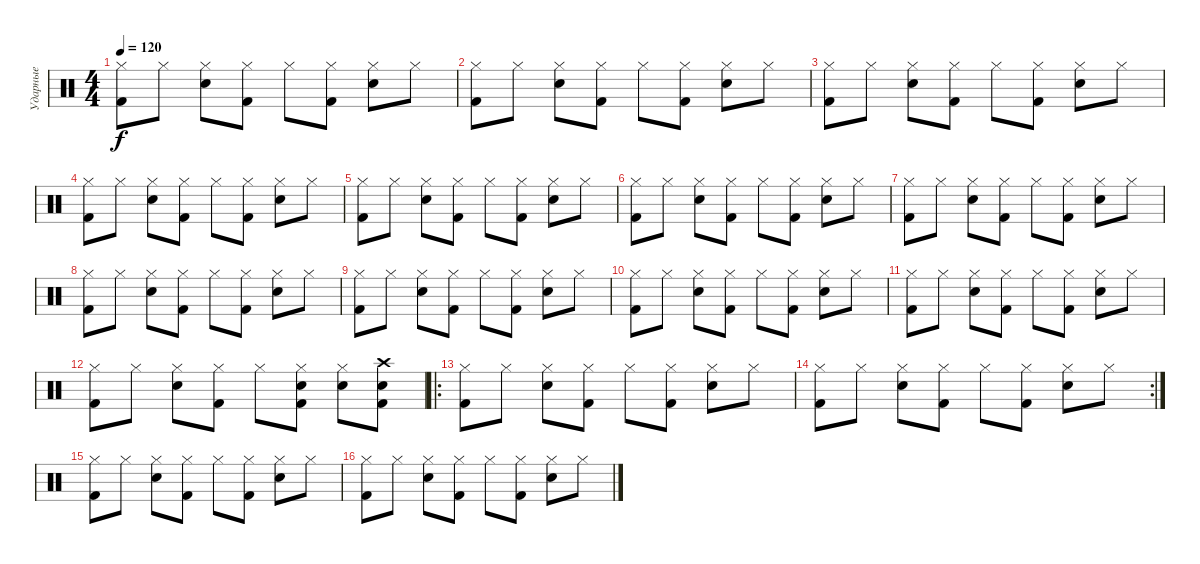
\track ("Ударные" "Ударные") {instrument percussion}
\staff {score}
\articulation defaults
\ts (4 4)
\tempo 120
\clef neutral
\ks c
("Hi-Hat (closed)" "Kick (hit) 2").8{dy f} "Hi-Hat (closed)".8 ("Hi-Hat (closed)" "Electric Snare (hit)").8 ("Hi-Hat (closed)" "Kick (hit) 2").8 "Hi-Hat (closed)".8 ("Hi-Hat (closed)" "Kick (hit) 2").8 ("Hi-Hat (closed)" "Electric Snare (hit)").8 "Hi-Hat (closed)".8 |
("Hi-Hat (closed)" "Kick (hit) 2").8 "Hi-Hat (closed)".8 ("Hi-Hat (closed)" "Electric Snare (hit)").8 ("Hi-Hat (closed)" "Kick (hit) 2").8 "Hi-Hat (closed)".8 ("Hi-Hat (closed)" "Kick (hit) 2").8 ("Hi-Hat (closed)" "Electric Snare (hit)").8 "Hi-Hat (closed)".8 |
("Hi-Hat (closed)" "Kick (hit) 2").8 "Hi-Hat (closed)".8 ("Hi-Hat (closed)" "Electric Snare (hit)").8 ("Hi-Hat (closed)" "Kick (hit) 2").8 "Hi-Hat (closed)".8 ("Hi-Hat (closed)" "Kick (hit) 2").8 ("Hi-Hat (closed)" "Electric Snare (hit)").8 "Hi-Hat (closed)".8 |
("Hi-Hat (closed)" "Kick (hit) 2").8 "Hi-Hat (closed)".8 ("Hi-Hat (closed)" "Electric Snare (hit)").8 ("Hi-Hat (closed)" "Kick (hit) 2").8 "Hi-Hat (closed)".8 ("Hi-Hat (closed)" "Kick (hit) 2").8 ("Hi-Hat (closed)" "Electric Snare (hit)").8 "Hi-Hat (closed)".8 |
("Hi-Hat (closed)" "Kick (hit) 2").8 "Hi-Hat (closed)".8 ("Hi-Hat (closed)" "Electric Snare (hit)").8 ("Hi-Hat (closed)" "Kick (hit) 2").8 "Hi-Hat (closed)".8 ("Hi-Hat (closed)" "Kick (hit) 2").8 ("Hi-Hat (closed)" "Electric Snare (hit)").8 "Hi-Hat (closed)".8 |
("Hi-Hat (closed)" "Kick (hit) 2").8 "Hi-Hat (closed)".8 ("Hi-Hat (closed)" "Electric Snare (hit)").8 ("Hi-Hat (closed)" "Kick (hit) 2").8 "Hi-Hat (closed)".8 ("Hi-Hat (closed)" "Kick (hit) 2").8 ("Hi-Hat (closed)" "Electric Snare (hit)").8 "Hi-Hat (closed)".8 |
("Hi-Hat (closed)" "Kick (hit) 2").8 "Hi-Hat (closed)".8 ("Hi-Hat (closed)" "Electric Snare (hit)").8 ("Hi-Hat (closed)" "Kick (hit) 2").8 "Hi-Hat (closed)".8 ("Hi-Hat (closed)" "Kick (hit) 2").8 ("Hi-Hat (closed)" "Electric Snare (hit)").8 "Hi-Hat (closed)".8 |
("Hi-Hat (closed)" "Kick (hit) 2").8 "Hi-Hat (closed)".8 ("Hi-Hat (closed)" "Electric Snare (hit)").8 ("Hi-Hat (closed)" "Kick (hit) 2").8 "Hi-Hat (closed)".8 ("Hi-Hat (closed)" "Kick (hit) 2").8 ("Hi-Hat (closed)" "Electric Snare (hit)").8 "Hi-Hat (closed)".8 |
("Hi-Hat (closed)" "Kick (hit) 2").8 "Hi-Hat (closed)".8 ("Hi-Hat (closed)" "Electric Snare (hit)").8 ("Hi-Hat (closed)" "Kick (hit) 2").8 "Hi-Hat (closed)".8 ("Hi-Hat (closed)" "Kick (hit) 2").8 ("Hi-Hat (closed)" "Electric Snare (hit)").8 "Hi-Hat (closed)".8 |
("Hi-Hat (closed)" "Kick (hit) 2").8 "Hi-Hat (closed)".8 ("Hi-Hat (closed)" "Electric Snare (hit)").8 ("Hi-Hat (closed)" "Kick (hit) 2").8 "Hi-Hat (closed)".8 ("Hi-Hat (closed)" "Kick (hit) 2").8 ("Hi-Hat (closed)" "Electric Snare (hit)").8 "Hi-Hat (closed)".8 |
("Hi-Hat (closed)" "Kick (hit) 2").8 "Hi-Hat (closed)".8 ("Hi-Hat (closed)" "Electric Snare (hit)").8 ("Hi-Hat (closed)" "Kick (hit) 2").8 "Hi-Hat (closed)".8 ("Hi-Hat (closed)" "Kick (hit) 2").8 ("Hi-Hat (closed)" "Electric Snare (hit)").8 "Hi-Hat (closed)".8 |
("Hi-Hat (closed)" "Kick (hit) 2").8 "Hi-Hat (closed)".8 ("Hi-Hat (closed)" "Electric Snare (hit)").8 ("Hi-Hat (closed)" "Kick (hit) 2").8 "Hi-Hat (closed)".8 ("Hi-Hat (closed)" "Electric Snare (hit)" "Kick (hit) 2").8 ("Hi-Hat (closed)" "Electric Snare (hit)").8 ("Crash high (hit)" "Electric Snare (hit)" "Kick (hit) 2").8 |
\ro
("Hi-Hat (closed)" "Kick (hit) 2").8 "Hi-Hat (closed)".8 ("Hi-Hat (closed)" "Electric Snare (hit)").8 ("Hi-Hat (closed)" "Kick (hit) 2").8 "Hi-Hat (closed)".8 ("Hi-Hat (closed)" "Kick (hit) 2").8 ("Hi-Hat (closed)" "Electric Snare (hit)").8 "Hi-Hat (closed)".8 |
\rc 2
("Hi-Hat (closed)" "Kick (hit) 2").8 "Hi-Hat (closed)".8 ("Hi-Hat (closed)" "Electric Snare (hit)").8 ("Hi-Hat (closed)" "Kick (hit) 2").8 "Hi-Hat (closed)".8 ("Hi-Hat (closed)" "Kick (hit) 2").8 ("Hi-Hat (closed)" "Electric Snare (hit)").8 "Hi-Hat (closed)".8 |
("Hi-Hat (closed)" "Kick (hit) 2").8 "Hi-Hat (closed)".8 ("Hi-Hat (closed)" "Electric Snare (hit)").8 ("Hi-Hat (closed)" "Kick (hit) 2").8 "Hi-Hat (closed)".8 ("Hi-Hat (closed)" "Kick (hit) 2").8 ("Hi-Hat (closed)" "Electric Snare (hit)").8 "Hi-Hat (closed)".8 |
("Hi-Hat (closed)" "Kick (hit) 2").8 "Hi-Hat (closed)".8 ("Hi-Hat (closed)" "Electric Snare (hit)").8 ("Hi-Hat (closed)" "Kick (hit) 2").8 "Hi-Hat (closed)".8 ("Hi-Hat (closed)" "Kick (hit) 2").8 ("Hi-Hat (closed)" "Electric Snare (hit)").8 "Hi-Hat (closed)".8
